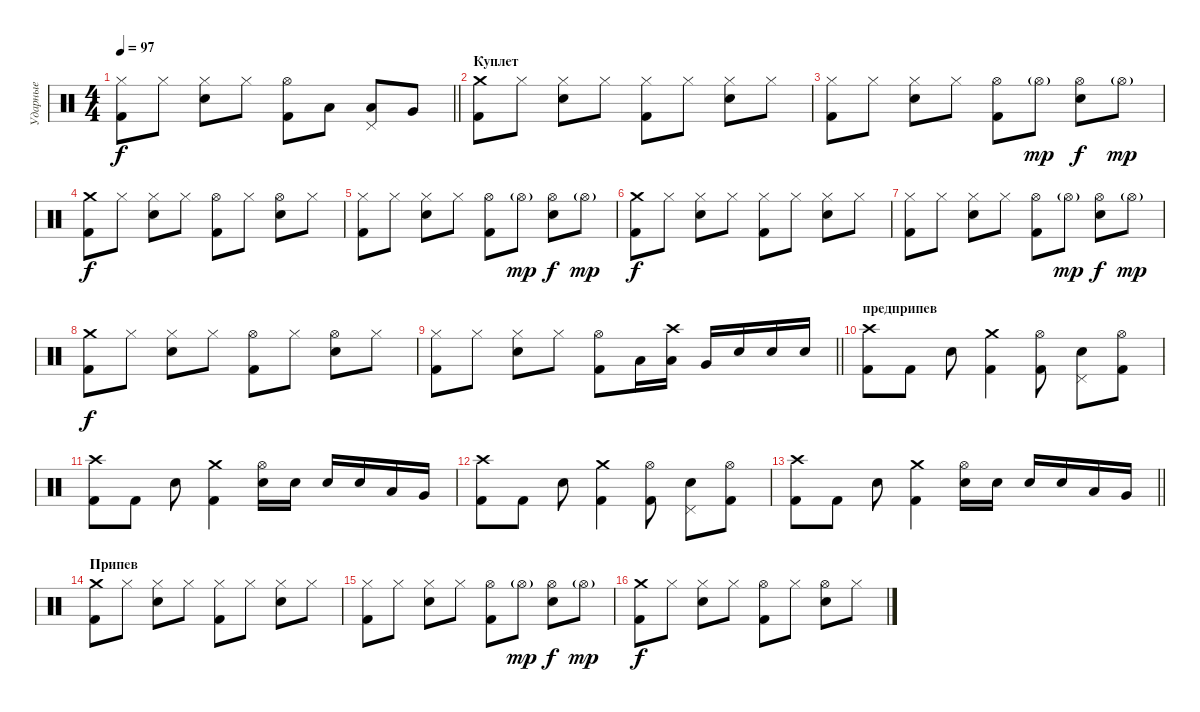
\track ("Ударные" "Ударные") {instrument percussion}
\staff {score}
\articulation defaults
\ts (4 4)
\tempo 97
\clef neutral
\barLineRight lightlight
\ks c
("Kick (hit) 2" "Hi-Hat (closed)").8{dy f} "Hi-Hat (closed)".8 ("Snare (hit) 2" "Hi-Hat (closed)").8 "Hi-Hat (closed)".8 ("Kick (hit) 2" "Hi-Hat (open)").8 "Low Tom (hit)".8 ("Pedal Hi-Hat (hit)" "Low Tom (hit)").8 "Very Low Tom (hit)".8 |
\section ("" "Куплет")
("Crash medium (hit)" "Kick (hit) 2").8 "Hi-Hat (closed)".8 ("Snare (hit) 2" "Hi-Hat (closed)").8 "Hi-Hat (closed)".8 ("Kick (hit) 2" "Hi-Hat (closed)").8 "Hi-Hat (closed)".8 ("Snare (hit) 2" "Hi-Hat (closed)").8 "Hi-Hat (closed)".8 |
("Kick (hit) 2" "Hi-Hat (closed)").8 "Hi-Hat (closed)".8 ("Snare (hit) 2" "Hi-Hat (closed)").8 "Hi-Hat (closed)".8 ("Kick (hit) 2" "Hi-Hat (open)").8 "Hi-Hat (open)"{g}.8{dy mp} ("Snare (hit) 2" "Hi-Hat (open)").8{dy f} "Hi-Hat (open)"{g}.8{dy mp} |
("Crash medium (hit)" "Kick (hit) 2").8{dy f} "Hi-Hat (closed)".8 ("Snare (hit) 2" "Hi-Hat (closed)").8 "Hi-Hat (closed)".8 ("Kick (hit) 2" "Hi-Hat (open)").8 "Hi-Hat (closed)".8 ("Snare (hit) 2" "Hi-Hat (open)").8 "Hi-Hat (closed)".8 |
("Kick (hit) 2" "Hi-Hat (closed)").8 "Hi-Hat (closed)".8 ("Snare (hit) 2" "Hi-Hat (closed)").8 "Hi-Hat (closed)".8 ("Kick (hit) 2" "Hi-Hat (open)").8 "Hi-Hat (open)"{g}.8{dy mp} ("Snare (hit) 2" "Hi-Hat (open)").8{dy f} "Hi-Hat (open)"{g}.8{dy mp} |
("Crash medium (hit)" "Kick (hit) 2").8{dy f} "Hi-Hat (closed)".8 ("Snare (hit) 2" "Hi-Hat (closed)").8 "Hi-Hat (closed)".8 ("Kick (hit) 2" "Hi-Hat (closed)").8 "Hi-Hat (closed)".8 ("Snare (hit) 2" "Hi-Hat (closed)").8 "Hi-Hat (closed)".8 |
("Kick (hit) 2" "Hi-Hat (closed)").8 "Hi-Hat (closed)".8 ("Snare (hit) 2" "Hi-Hat (closed)").8 "Hi-Hat (closed)".8 ("Kick (hit) 2" "Hi-Hat (open)").8 "Hi-Hat (open)"{g}.8{dy mp} ("Snare (hit) 2" "Hi-Hat (open)").8{dy f} "Hi-Hat (open)"{g}.8{dy mp} |
("Crash medium (hit)" "Kick (hit) 2").8{dy f} "Hi-Hat (closed)".8 ("Snare (hit) 2" "Hi-Hat (closed)").8 "Hi-Hat (closed)".8 ("Kick (hit) 2" "Hi-Hat (open)").8 "Hi-Hat (closed)".8 ("Snare (hit) 2" "Hi-Hat (open)").8 "Hi-Hat (closed)".8 |
\barLineRight lightlight
("Kick (hit) 2" "Hi-Hat (closed)").8 "Hi-Hat (closed)".8 ("Snare (hit) 2" "Hi-Hat (closed)").8 "Hi-Hat (closed)".8 ("Kick (hit) 2" "Hi-Hat (open)").8 "Low Tom (hit)".16 ("Crash high (hit)" "Low Tom (hit)").16 "Very Low Tom (hit)".16 "Snare (hit) 2".16 "Snare (hit) 2".16 "Snare (hit) 2".16 |
\section ("" "предприпев")
("Crash high (hit)" "Kick (hit) 2").8 "Kick (hit) 2".8 "Snare (hit) 2".8 ("Crash medium (hit)" "Kick (hit) 2").4 ("Hi-Hat (open)" "Kick (hit) 2").8 ("Pedal Hi-Hat (hit)" "Snare (hit) 2").8 ("Hi-Hat (open)" "Kick (hit) 2").8 |
("Crash high (hit)" "Kick (hit) 2").8 "Kick (hit) 2".8 "Snare (hit) 2".8 ("Crash medium (hit)" "Kick (hit) 2").4 ("Hi-Hat (open)" "Snare (hit) 2").16 "Snare (hit) 2".16 "Snare (hit) 2".16 "Snare (hit) 2".16 "Low Tom (hit)".16 "Very Low Tom (hit)".16 |
("Crash high (hit)" "Kick (hit) 2").8 "Kick (hit) 2".8 "Snare (hit) 2".8 ("Crash medium (hit)" "Kick (hit) 2").4 ("Hi-Hat (open)" "Kick (hit) 2").8 ("Pedal Hi-Hat (hit)" "Snare (hit) 2").8 ("Hi-Hat (open)" "Kick (hit) 2").8 |
\barLineRight lightlight
("Crash high (hit)" "Kick (hit) 2").8 "Kick (hit) 2".8 "Snare (hit) 2".8 ("Crash medium (hit)" "Kick (hit) 2").4 ("Hi-Hat (open)" "Snare (hit) 2").16 "Snare (hit) 2".16 "Snare (hit) 2".16 "Snare (hit) 2".16 "Low Tom (hit)".16 "Very Low Tom (hit)".16 |
\section ("" "Припев")
("Crash medium (hit)" "Kick (hit) 2").8 "Hi-Hat (closed)".8 ("Snare (hit) 2" "Hi-Hat (closed)").8 "Hi-Hat (closed)".8 ("Kick (hit) 2" "Hi-Hat (closed)").8 "Hi-Hat (closed)".8 ("Snare (hit) 2" "Hi-Hat (closed)").8 "Hi-Hat (closed)".8 |
("Kick (hit) 2" "Hi-Hat (closed)").8 "Hi-Hat (closed)".8 ("Snare (hit) 2" "Hi-Hat (closed)").8 "Hi-Hat (closed)".8 ("Kick (hit) 2" "Hi-Hat (open)").8 "Hi-Hat (open)"{g}.8{dy mp} ("Snare (hit) 2" "Hi-Hat (open)").8{dy f} "Hi-Hat (open)"{g}.8{dy mp} |
("Crash medium (hit)" "Kick (hit) 2").8{dy f} "Hi-Hat (closed)".8 ("Snare (hit) 2" "Hi-Hat (closed)").8 "Hi-Hat (closed)".8 ("Kick (hit) 2" "Hi-Hat (open)").8 "Hi-Hat (closed)".8 ("Snare (hit) 2" "Hi-Hat (open)").8 "Hi-Hat (closed)".8
